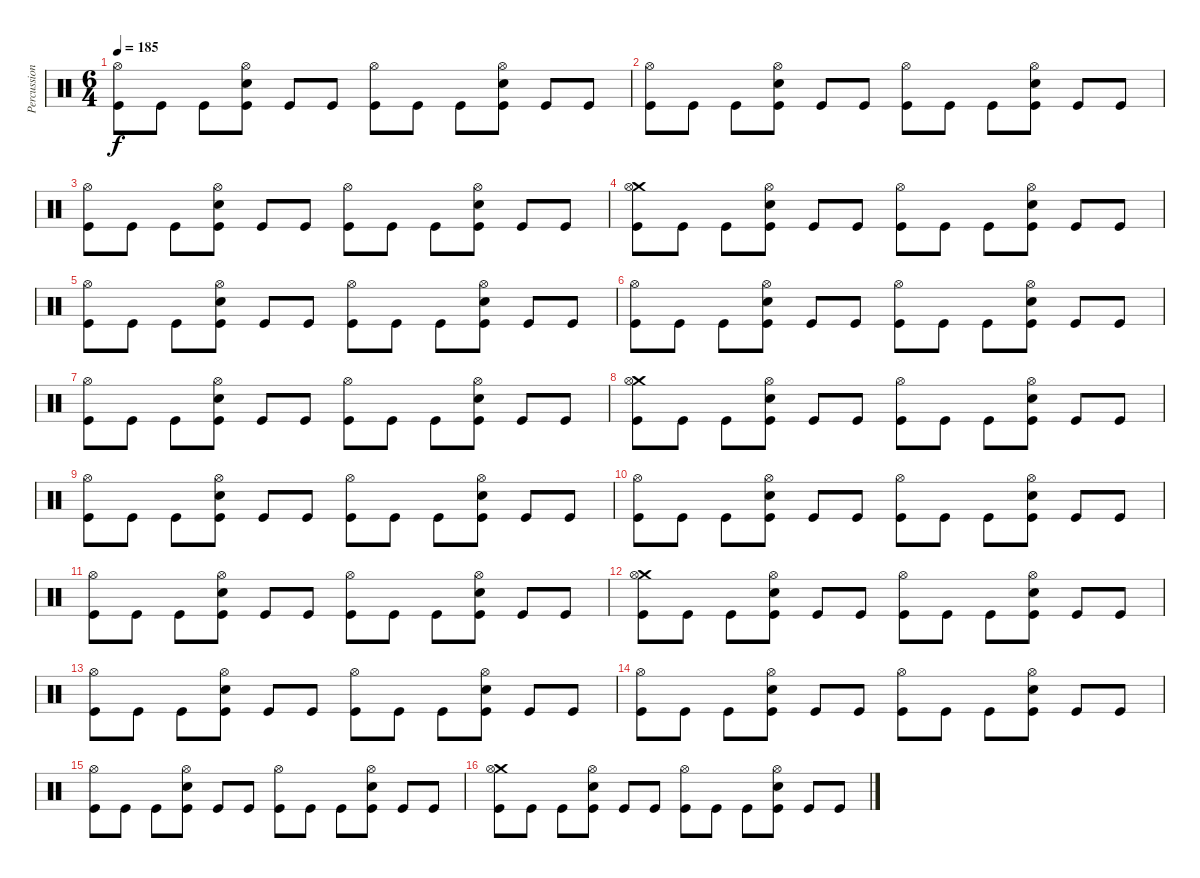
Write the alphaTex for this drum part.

\track ("Percussion" "Percussion") {instrument percussion}
\staff {score}
\articulation defaults
\ts (6 4)
\tempo 185
\clef neutral
\ks c
("Hi-Hat (open)" "Kick (hit)").8{dy f} "Kick (hit)".8 "Kick (hit)".8 ("Electric Snare (hit)" "Hi-Hat (open)" "Kick (hit)").8 "Kick (hit)".8 "Kick (hit)".8 ("Hi-Hat (open)" "Kick (hit)").8 "Kick (hit)".8 "Kick (hit)".8 ("Electric Snare (hit)" "Hi-Hat (open)" "Kick (hit)").8 "Kick (hit)".8 "Kick (hit)".8 |
("Hi-Hat (open)" "Kick (hit)").8 "Kick (hit)".8 "Kick (hit)".8 ("Electric Snare (hit)" "Hi-Hat (open)" "Kick (hit)").8 "Kick (hit)".8 "Kick (hit)".8 ("Hi-Hat (open)" "Kick (hit)").8 "Kick (hit)".8 "Kick (hit)".8 ("Electric Snare (hit)" "Hi-Hat (open)" "Kick (hit)").8 "Kick (hit)".8 "Kick (hit)".8 |
("Hi-Hat (open)" "Kick (hit)").8 "Kick (hit)".8 "Kick (hit)".8 ("Electric Snare (hit)" "Hi-Hat (open)" "Kick (hit)").8 "Kick (hit)".8 "Kick (hit)".8 ("Hi-Hat (open)" "Kick (hit)").8 "Kick (hit)".8 "Kick (hit)".8 ("Electric Snare (hit)" "Hi-Hat (open)" "Kick (hit)").8 "Kick (hit)".8 "Kick (hit)".8 |
("Crash medium (hit)" "Hi-Hat (open)" "Kick (hit)").8 "Kick (hit)".8 "Kick (hit)".8 ("Electric Snare (hit)" "Hi-Hat (open)" "Kick (hit)").8 "Kick (hit)".8 "Kick (hit)".8 ("Hi-Hat (open)" "Kick (hit)").8 "Kick (hit)".8 "Kick (hit)".8 ("Electric Snare (hit)" "Hi-Hat (open)" "Kick (hit)").8 "Kick (hit)".8 "Kick (hit)".8 |
("Hi-Hat (open)" "Kick (hit)").8 "Kick (hit)".8 "Kick (hit)".8 ("Electric Snare (hit)" "Hi-Hat (open)" "Kick (hit)").8 "Kick (hit)".8 "Kick (hit)".8 ("Hi-Hat (open)" "Kick (hit)").8 "Kick (hit)".8 "Kick (hit)".8 ("Electric Snare (hit)" "Hi-Hat (open)" "Kick (hit)").8 "Kick (hit)".8 "Kick (hit)".8 |
("Hi-Hat (open)" "Kick (hit)").8 "Kick (hit)".8 "Kick (hit)".8 ("Electric Snare (hit)" "Hi-Hat (open)" "Kick (hit)").8 "Kick (hit)".8 "Kick (hit)".8 ("Hi-Hat (open)" "Kick (hit)").8 "Kick (hit)".8 "Kick (hit)".8 ("Electric Snare (hit)" "Hi-Hat (open)" "Kick (hit)").8 "Kick (hit)".8 "Kick (hit)".8 |
("Hi-Hat (open)" "Kick (hit)").8 "Kick (hit)".8 "Kick (hit)".8 ("Electric Snare (hit)" "Hi-Hat (open)" "Kick (hit)").8 "Kick (hit)".8 "Kick (hit)".8 ("Hi-Hat (open)" "Kick (hit)").8 "Kick (hit)".8 "Kick (hit)".8 ("Electric Snare (hit)" "Hi-Hat (open)" "Kick (hit)").8 "Kick (hit)".8 "Kick (hit)".8 |
("Crash medium (hit)" "Hi-Hat (open)" "Kick (hit)").8 "Kick (hit)".8 "Kick (hit)".8 ("Electric Snare (hit)" "Hi-Hat (open)" "Kick (hit)").8 "Kick (hit)".8 "Kick (hit)".8 ("Hi-Hat (open)" "Kick (hit)").8 "Kick (hit)".8 "Kick (hit)".8 ("Electric Snare (hit)" "Hi-Hat (open)" "Kick (hit)").8 "Kick (hit)".8 "Kick (hit)".8 |
("Hi-Hat (open)" "Kick (hit)").8 "Kick (hit)".8 "Kick (hit)".8 ("Electric Snare (hit)" "Hi-Hat (open)" "Kick (hit)").8 "Kick (hit)".8 "Kick (hit)".8 ("Hi-Hat (open)" "Kick (hit)").8 "Kick (hit)".8 "Kick (hit)".8 ("Electric Snare (hit)" "Hi-Hat (open)" "Kick (hit)").8 "Kick (hit)".8 "Kick (hit)".8 |
("Hi-Hat (open)" "Kick (hit)").8 "Kick (hit)".8 "Kick (hit)".8 ("Electric Snare (hit)" "Hi-Hat (open)" "Kick (hit)").8 "Kick (hit)".8 "Kick (hit)".8 ("Hi-Hat (open)" "Kick (hit)").8 "Kick (hit)".8 "Kick (hit)".8 ("Electric Snare (hit)" "Hi-Hat (open)" "Kick (hit)").8 "Kick (hit)".8 "Kick (hit)".8 |
("Hi-Hat (open)" "Kick (hit)").8 "Kick (hit)".8 "Kick (hit)".8 ("Electric Snare (hit)" "Hi-Hat (open)" "Kick (hit)").8 "Kick (hit)".8 "Kick (hit)".8 ("Hi-Hat (open)" "Kick (hit)").8 "Kick (hit)".8 "Kick (hit)".8 ("Electric Snare (hit)" "Hi-Hat (open)" "Kick (hit)").8 "Kick (hit)".8 "Kick (hit)".8 |
("Crash medium (hit)" "Hi-Hat (open)" "Kick (hit)").8 "Kick (hit)".8 "Kick (hit)".8 ("Electric Snare (hit)" "Hi-Hat (open)" "Kick (hit)").8 "Kick (hit)".8 "Kick (hit)".8 ("Hi-Hat (open)" "Kick (hit)").8 "Kick (hit)".8 "Kick (hit)".8 ("Electric Snare (hit)" "Hi-Hat (open)" "Kick (hit)").8 "Kick (hit)".8 "Kick (hit)".8 |
("Hi-Hat (open)" "Kick (hit)").8 "Kick (hit)".8 "Kick (hit)".8 ("Electric Snare (hit)" "Hi-Hat (open)" "Kick (hit)").8 "Kick (hit)".8 "Kick (hit)".8 ("Hi-Hat (open)" "Kick (hit)").8 "Kick (hit)".8 "Kick (hit)".8 ("Electric Snare (hit)" "Hi-Hat (open)" "Kick (hit)").8 "Kick (hit)".8 "Kick (hit)".8 |
("Hi-Hat (open)" "Kick (hit)").8 "Kick (hit)".8 "Kick (hit)".8 ("Electric Snare (hit)" "Hi-Hat (open)" "Kick (hit)").8 "Kick (hit)".8 "Kick (hit)".8 ("Hi-Hat (open)" "Kick (hit)").8 "Kick (hit)".8 "Kick (hit)".8 ("Electric Snare (hit)" "Hi-Hat (open)" "Kick (hit)").8 "Kick (hit)".8 "Kick (hit)".8 |
("Hi-Hat (open)" "Kick (hit)").8 "Kick (hit)".8 "Kick (hit)".8 ("Electric Snare (hit)" "Hi-Hat (open)" "Kick (hit)").8 "Kick (hit)".8 "Kick (hit)".8 ("Hi-Hat (open)" "Kick (hit)").8 "Kick (hit)".8 "Kick (hit)".8 ("Electric Snare (hit)" "Hi-Hat (open)" "Kick (hit)").8 "Kick (hit)".8 "Kick (hit)".8 |
("Crash medium (hit)" "Hi-Hat (open)" "Kick (hit)").8 "Kick (hit)".8 "Kick (hit)".8 ("Electric Snare (hit)" "Hi-Hat (open)" "Kick (hit)").8 "Kick (hit)".8 "Kick (hit)".8 ("Hi-Hat (open)" "Kick (hit)").8 "Kick (hit)".8 "Kick (hit)".8 ("Electric Snare (hit)" "Hi-Hat (open)" "Kick (hit)").8 "Kick (hit)".8 "Kick (hit)".8
